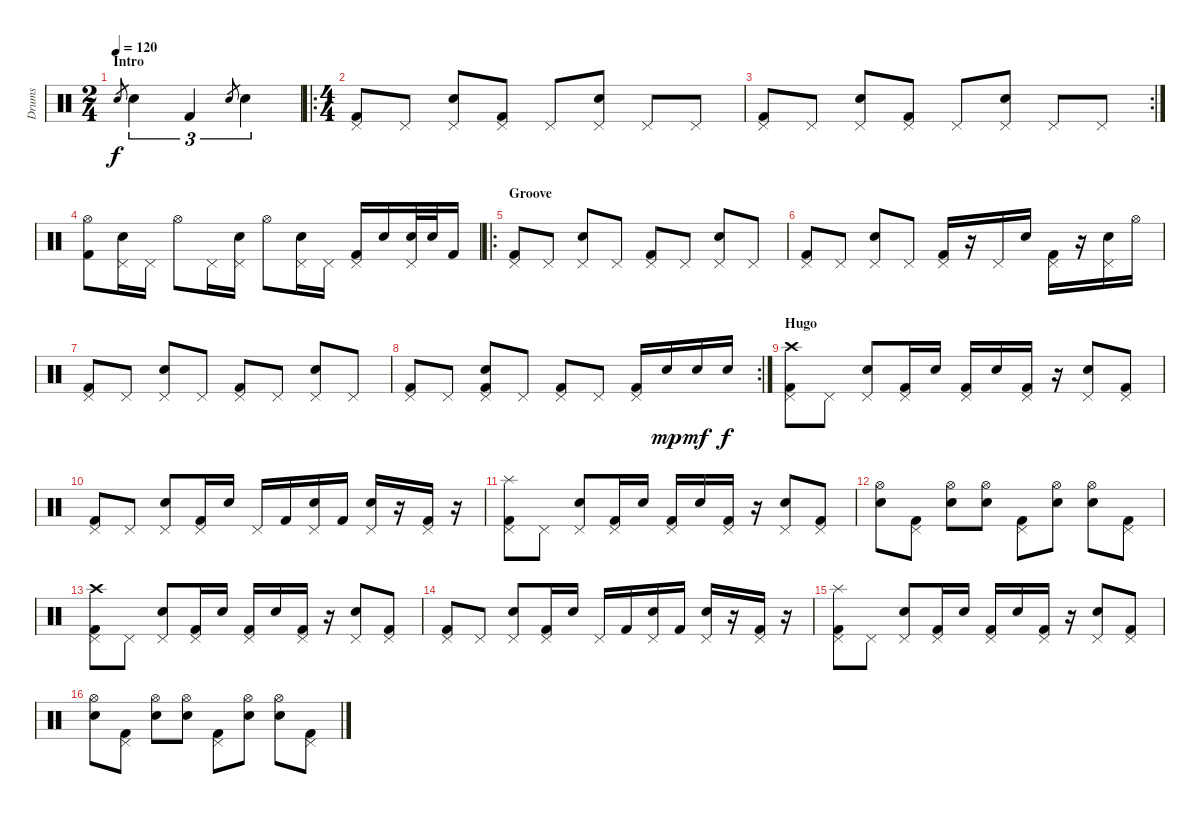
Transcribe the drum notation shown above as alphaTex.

\track ("Drums" "Drums") {instrument percussion}
\staff {score}
\articulation defaults
\ts (2 4)
\section ("" "Intro")
\tempo 120
\clef neutral
\ks c "Electric Snare (hit)".8{gr dy f} "Electric Snare (hit)".4{tu (3 2)} "Kick (hit) 2".4{tu (3 2)} "Electric Snare (hit)".8{gr} "Electric Snare (hit)".4{tu (3 2)}
|
\ro
\ts (4 4)
("Pedal Hi-Hat (hit)" "Kick (hit) 2").8 "Pedal Hi-Hat (hit)".8 ("Pedal Hi-Hat (hit)" "Electric Snare (hit)").8 ("Pedal Hi-Hat (hit)" "Kick (hit) 2").8 "Pedal Hi-Hat (hit)".8 ("Pedal Hi-Hat (hit)" "Electric Snare (hit)").8 "Pedal Hi-Hat (hit)".8 "Pedal Hi-Hat (hit)".8 |
\rc 2
("Pedal Hi-Hat (hit)" "Kick (hit) 2").8 "Pedal Hi-Hat (hit)".8 ("Pedal Hi-Hat (hit)" "Electric Snare (hit)").8 ("Pedal Hi-Hat (hit)" "Kick (hit) 2").8 "Pedal Hi-Hat (hit)".8 ("Pedal Hi-Hat (hit)" "Electric Snare (hit)").8 "Pedal Hi-Hat (hit)".8 "Pedal Hi-Hat (hit)".8 |
("Hi-Hat (open)" "Kick (hit) 2").8 ("Pedal Hi-Hat (hit)" "Electric Snare (hit)").16 "Pedal Hi-Hat (hit)".16 "Hi-Hat (open)".8 "Pedal Hi-Hat (hit)".16 ("Pedal Hi-Hat (hit)" "Electric Snare (hit)").16 "Hi-Hat (open)".8 ("Pedal Hi-Hat (hit)" "Electric Snare (hit)").16 "Pedal Hi-Hat (hit)".16 ("Pedal Hi-Hat (hit)" "Kick (hit) 2").16 "Electric Snare (hit)".16 ("Pedal Hi-Hat (hit)" "Electric Snare (hit)").32 "Electric Snare (hit)".32 "Kick (hit) 2".16 |
\ro
\section ("" "Groove")
("Pedal Hi-Hat (hit)" "Kick (hit) 2").8 "Pedal Hi-Hat (hit)".8 ("Pedal Hi-Hat (hit)" "Electric Snare (hit)").8 "Pedal Hi-Hat (hit)".8 ("Pedal Hi-Hat (hit)" "Kick (hit) 2").8 "Pedal Hi-Hat (hit)".8 ("Pedal Hi-Hat (hit)" "Electric Snare (hit)").8 "Pedal Hi-Hat (hit)".8 |
("Pedal Hi-Hat (hit)" "Kick (hit) 2").8 "Pedal Hi-Hat (hit)".8 ("Pedal Hi-Hat (hit)" "Electric Snare (hit)").8 "Pedal Hi-Hat (hit)".8 ("Pedal Hi-Hat (hit)" "Kick (hit) 2").16 r.16 "Pedal Hi-Hat (hit)".16 "Electric Snare (hit)".16 ("Pedal Hi-Hat (hit)" "Kick (hit) 2").16 r.16 ("Pedal Hi-Hat (hit)" "Electric Snare (hit)").16 "Hi-Hat (open)".16 |
("Pedal Hi-Hat (hit)" "Kick (hit) 2").8 "Pedal Hi-Hat (hit)".8 ("Pedal Hi-Hat (hit)" "Electric Snare (hit)").8 "Pedal Hi-Hat (hit)".8 ("Pedal Hi-Hat (hit)" "Kick (hit) 2").8 "Pedal Hi-Hat (hit)".8 ("Pedal Hi-Hat (hit)" "Electric Snare (hit)").8 "Pedal Hi-Hat (hit)".8 |
\rc 2
("Pedal Hi-Hat (hit)" "Kick (hit) 2").8 "Pedal Hi-Hat (hit)".8 ("Pedal Hi-Hat (hit)" "Electric Snare (hit)" "Kick (hit) 2").8 "Pedal Hi-Hat (hit)".8 ("Pedal Hi-Hat (hit)" "Kick (hit) 2").8 "Pedal Hi-Hat (hit)".8 ("Pedal Hi-Hat (hit)" "Kick (hit) 2").16 "Electric Snare (hit)".16{dy mp} "Electric Snare (hit)".16{dy mf} "Electric Snare (hit)".16{dy f} |
\section ("" "Hugo")
("Crash high (hit)" "Pedal Hi-Hat (hit)" "Kick (hit) 2").8 "Pedal Hi-Hat (hit)".8 ("Pedal Hi-Hat (hit)" "Electric Snare (hit)").8 ("Pedal Hi-Hat (hit)" "Kick (hit) 2").16 "Electric Snare (hit)".16 ("Pedal Hi-Hat (hit)" "Kick (hit) 2").16 "Electric Snare (hit)".16 ("Pedal Hi-Hat (hit)" "Kick (hit) 2").16 r.16 ("Pedal Hi-Hat (hit)" "Electric Snare (hit)").8 ("Pedal Hi-Hat (hit)" "Kick (hit) 2").8 |
("Pedal Hi-Hat (hit)" "Kick (hit) 2").8 "Pedal Hi-Hat (hit)".8 ("Pedal Hi-Hat (hit)" "Electric Snare (hit)").8 ("Pedal Hi-Hat (hit)" "Kick (hit) 2").16 "Electric Snare (hit)".16 "Pedal Hi-Hat (hit)".16 "Kick (hit) 2".16 ("Pedal Hi-Hat (hit)" "Electric Snare (hit)").16 "Kick (hit) 2".16 ("Pedal Hi-Hat (hit)" "Electric Snare (hit)").16 r.16 ("Pedal Hi-Hat (hit)" "Kick (hit) 2").16 r.16 |
("Splash (hit)" "Pedal Hi-Hat (hit)" "Kick (hit) 2").8 "Pedal Hi-Hat (hit)".8 ("Pedal Hi-Hat (hit)" "Electric Snare (hit)").8 ("Pedal Hi-Hat (hit)" "Kick (hit) 2").16 "Electric Snare (hit)".16 ("Pedal Hi-Hat (hit)" "Kick (hit) 2").16 "Electric Snare (hit)".16 ("Pedal Hi-Hat (hit)" "Kick (hit) 2").16 r.16 ("Pedal Hi-Hat (hit)" "Electric Snare (hit)").8 ("Pedal Hi-Hat (hit)" "Kick (hit) 2").8 |
("Hi-Hat (open)" "Electric Snare (hit)").8 ("Pedal Hi-Hat (hit)" "Kick (hit) 2").8 ("Hi-Hat (open)" "Electric Snare (hit)").8 ("Hi-Hat (open)" "Electric Snare (hit)").8 ("Pedal Hi-Hat (hit)" "Kick (hit) 2").8 ("Hi-Hat (open)" "Electric Snare (hit)").8 ("Hi-Hat (open)" "Electric Snare (hit)").8 ("Pedal Hi-Hat (hit)" "Kick (hit) 2").8 |
("Crash high (hit)" "Pedal Hi-Hat (hit)" "Kick (hit) 2").8 "Pedal Hi-Hat (hit)".8 ("Pedal Hi-Hat (hit)" "Electric Snare (hit)").8 ("Pedal Hi-Hat (hit)" "Kick (hit) 2").16 "Electric Snare (hit)".16 ("Pedal Hi-Hat (hit)" "Kick (hit) 2").16 "Electric Snare (hit)".16 ("Pedal Hi-Hat (hit)" "Kick (hit) 2").16 r.16 ("Pedal Hi-Hat (hit)" "Electric Snare (hit)").8 ("Pedal Hi-Hat (hit)" "Kick (hit) 2").8 |
("Pedal Hi-Hat (hit)" "Kick (hit) 2").8 "Pedal Hi-Hat (hit)".8 ("Pedal Hi-Hat (hit)" "Electric Snare (hit)").8 ("Pedal Hi-Hat (hit)" "Kick (hit) 2").16 "Electric Snare (hit)".16 "Pedal Hi-Hat (hit)".16 "Kick (hit) 2".16 ("Pedal Hi-Hat (hit)" "Electric Snare (hit)").16 "Kick (hit) 2".16 ("Pedal Hi-Hat (hit)" "Electric Snare (hit)").16 r.16 ("Pedal Hi-Hat (hit)" "Kick (hit) 2").16 r.16 |
("Splash (hit)" "Pedal Hi-Hat (hit)" "Kick (hit) 2").8 "Pedal Hi-Hat (hit)".8 ("Pedal Hi-Hat (hit)" "Electric Snare (hit)").8 ("Pedal Hi-Hat (hit)" "Kick (hit) 2").16 "Electric Snare (hit)".16 ("Pedal Hi-Hat (hit)" "Kick (hit) 2").16 "Electric Snare (hit)".16 ("Pedal Hi-Hat (hit)" "Kick (hit) 2").16 r.16 ("Pedal Hi-Hat (hit)" "Electric Snare (hit)").8 ("Pedal Hi-Hat (hit)" "Kick (hit) 2").8 |
("Hi-Hat (open)" "Electric Snare (hit)").8 ("Pedal Hi-Hat (hit)" "Kick (hit) 2").8 ("Hi-Hat (open)" "Electric Snare (hit)").8 ("Hi-Hat (open)" "Electric Snare (hit)").8 ("Pedal Hi-Hat (hit)" "Kick (hit) 2").8 ("Hi-Hat (open)" "Electric Snare (hit)").8 ("Hi-Hat (open)" "Electric Snare (hit)").8 ("Pedal Hi-Hat (hit)" "Kick (hit) 2").8
